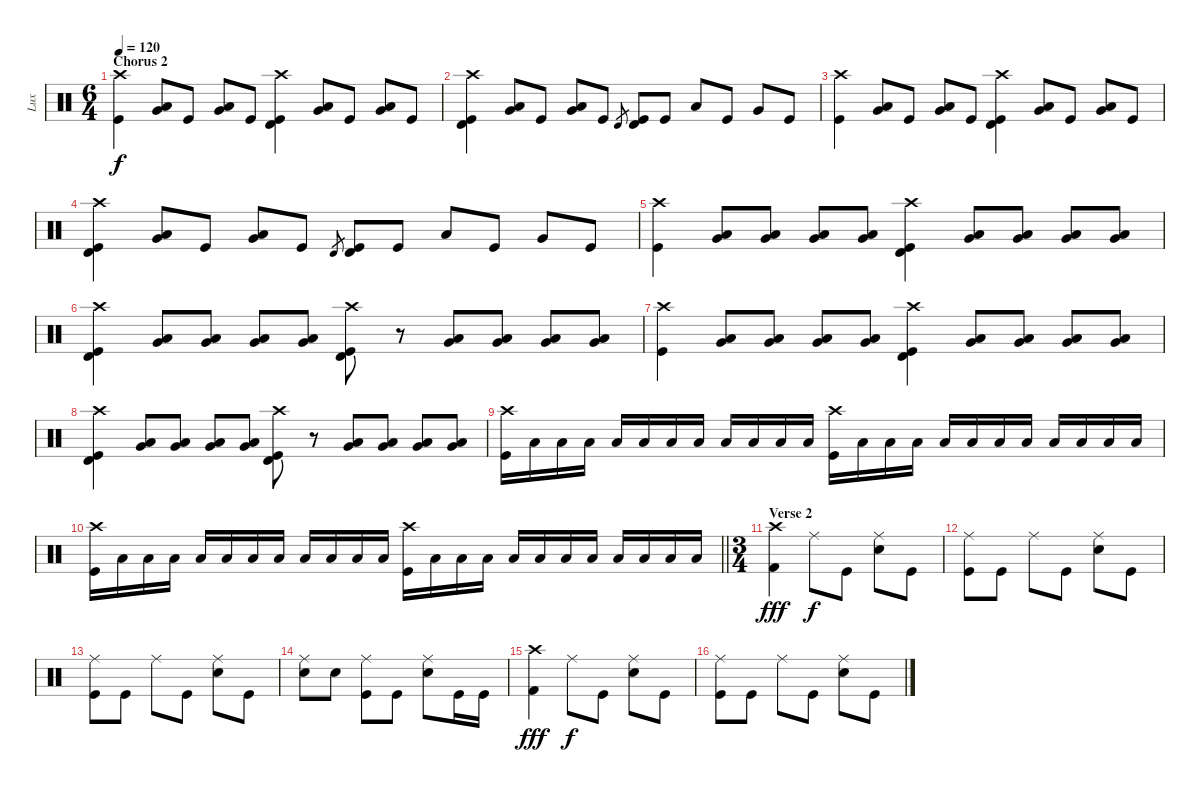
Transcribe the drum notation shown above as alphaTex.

\track ("Lux" "Lux") {instrument percussion}
\staff {score}
\articulation defaults
\ts (6 4)
\section ("" "Chorus 2")
\tempo 120
\clef neutral
\ks c
("Crash high (hit)" "Kick (hit)").4{dy f} ("Very Low Tom (hit)" "Low Floor Tom (hit)").8 "Kick (hit)".8 ("Very Low Tom (hit)" "Low Floor Tom (hit)").8 "Kick (hit)".8 ("Crash high (hit)" "Timbale high (hit)" "Kick (hit)").4 ("Very Low Tom (hit)" "Low Floor Tom (hit)").8 "Kick (hit)".8 ("Very Low Tom (hit)" "Low Floor Tom (hit)").8 "Kick (hit)".8 |
("Crash high (hit)" "Timbale high (hit)" "Kick (hit)").4 ("Very Low Tom (hit)" "Low Floor Tom (hit)").8 "Kick (hit)".8 ("Very Low Tom (hit)" "Low Floor Tom (hit)").8 "Kick (hit)".8 "Timbale high (hit)".8{gr} ("Timbale high (hit)" "Kick (hit)").8 "Kick (hit)".8 "Low Tom (hit)".8 "Kick (hit)".8 "Very Low Tom (hit)".8 "Kick (hit)".8 |
("Crash high (hit)" "Kick (hit)").4 ("Very Low Tom (hit)" "Low Floor Tom (hit)").8 "Kick (hit)".8 ("Very Low Tom (hit)" "Low Floor Tom (hit)").8 "Kick (hit)".8 ("Crash high (hit)" "Timbale high (hit)" "Kick (hit)").4 ("Very Low Tom (hit)" "Low Floor Tom (hit)").8 "Kick (hit)".8 ("Very Low Tom (hit)" "Low Floor Tom (hit)").8 "Kick (hit)".8 |
("Crash high (hit)" "Timbale high (hit)" "Kick (hit)").4 ("Very Low Tom (hit)" "Low Floor Tom (hit)").8 "Kick (hit)".8 ("Very Low Tom (hit)" "Low Floor Tom (hit)").8 "Kick (hit)".8 "Timbale high (hit)".8{gr} ("Timbale high (hit)" "Kick (hit)").8 "Kick (hit)".8 "Low Tom (hit)".8 "Kick (hit)".8 "Very Low Tom (hit)".8 "Kick (hit)".8 |
("Crash high (hit)" "Kick (hit)").4 ("Very Low Tom (hit)" "Low Floor Tom (hit)").8 ("Very Low Tom (hit)" "Low Floor Tom (hit)").8 ("Very Low Tom (hit)" "Low Floor Tom (hit)").8 ("Very Low Tom (hit)" "Low Floor Tom (hit)").8 ("Crash high (hit)" "Timbale high (hit)" "Kick (hit)").4 ("Very Low Tom (hit)" "Low Floor Tom (hit)").8 ("Very Low Tom (hit)" "Low Floor Tom (hit)").8 ("Very Low Tom (hit)" "Low Floor Tom (hit)").8 ("Very Low Tom (hit)" "Low Floor Tom (hit)").8 |
("Crash high (hit)" "Timbale high (hit)" "Kick (hit)").4 ("Very Low Tom (hit)" "Low Floor Tom (hit)").8 ("Very Low Tom (hit)" "Low Floor Tom (hit)").8 ("Very Low Tom (hit)" "Low Floor Tom (hit)").8 ("Very Low Tom (hit)" "Low Floor Tom (hit)").8 ("Crash high (hit)" "Timbale high (hit)" "Kick (hit)").8 r.8 ("Very Low Tom (hit)" "Low Floor Tom (hit)").8 ("Very Low Tom (hit)" "Low Floor Tom (hit)").8 ("Very Low Tom (hit)" "Low Floor Tom (hit)").8 ("Very Low Tom (hit)" "Low Floor Tom (hit)").8 |
("Crash high (hit)" "Kick (hit)").4 ("Very Low Tom (hit)" "Low Floor Tom (hit)").8 ("Very Low Tom (hit)" "Low Floor Tom (hit)").8 ("Very Low Tom (hit)" "Low Floor Tom (hit)").8 ("Very Low Tom (hit)" "Low Floor Tom (hit)").8 ("Crash high (hit)" "Timbale high (hit)" "Kick (hit)").4 ("Very Low Tom (hit)" "Low Floor Tom (hit)").8 ("Very Low Tom (hit)" "Low Floor Tom (hit)").8 ("Very Low Tom (hit)" "Low Floor Tom (hit)").8 ("Very Low Tom (hit)" "Low Floor Tom (hit)").8 |
("Crash high (hit)" "Timbale high (hit)" "Kick (hit)").4 ("Very Low Tom (hit)" "Low Floor Tom (hit)").8 ("Very Low Tom (hit)" "Low Floor Tom (hit)").8 ("Very Low Tom (hit)" "Low Floor Tom (hit)").8 ("Very Low Tom (hit)" "Low Floor Tom (hit)").8 ("Crash high (hit)" "Timbale high (hit)" "Kick (hit)").8 r.8 ("Very Low Tom (hit)" "Low Floor Tom (hit)").8 ("Very Low Tom (hit)" "Low Floor Tom (hit)").8 ("Very Low Tom (hit)" "Low Floor Tom (hit)").8 ("Very Low Tom (hit)" "Low Floor Tom (hit)").8 |
("Crash high (hit)" "Kick (hit)").16 "Low Floor Tom (hit)".16 "Low Floor Tom (hit)".16 "Low Floor Tom (hit)".16 "Low Floor Tom (hit)".16 "Low Floor Tom (hit)".16 "Low Floor Tom (hit)".16 "Low Floor Tom (hit)".16 "Low Floor Tom (hit)".16 "Low Floor Tom (hit)".16 "Low Floor Tom (hit)".16 "Low Floor Tom (hit)".16 ("Crash high (hit)" "Kick (hit)").16 "Low Floor Tom (hit)".16 "Low Floor Tom (hit)".16 "Low Floor Tom (hit)".16 "Low Floor Tom (hit)".16 "Low Floor Tom (hit)".16 "Low Floor Tom (hit)".16 "Low Floor Tom (hit)".16 "Low Floor Tom (hit)".16 "Low Floor Tom (hit)".16 "Low Floor Tom (hit)".16 "Low Floor Tom (hit)".16 |
\barLineRight lightlight
("Crash high (hit)" "Kick (hit)").16 "Low Floor Tom (hit)".16 "Low Floor Tom (hit)".16 "Low Floor Tom (hit)".16 "Low Floor Tom (hit)".16 "Low Floor Tom (hit)".16 "Low Floor Tom (hit)".16 "Low Floor Tom (hit)".16 "Low Floor Tom (hit)".16 "Low Floor Tom (hit)".16 "Low Floor Tom (hit)".16 "Low Floor Tom (hit)".16 ("Crash high (hit)" "Kick (hit)").16 "Low Floor Tom (hit)".16 "Low Floor Tom (hit)".16 "Low Floor Tom (hit)".16 "Low Floor Tom (hit)".16 "Low Floor Tom (hit)".16 "Low Floor Tom (hit)".16 "Low Floor Tom (hit)".16 "Low Floor Tom (hit)".16 "Low Floor Tom (hit)".16 "Low Floor Tom (hit)".16 "Low Floor Tom (hit)".16 |
\ts (3 4)
\section ("" "Verse 2")
("Crash high (hit)" "Kick (hit) 2").4{dy fff} "Ride (middle)".8{dy f} "Kick (hit)".8 ("Ride (middle)" "Snare (hit) 2").8 "Kick (hit)".8 |
("Ride (middle)" "Kick (hit)").8 "Kick (hit)".8 "Ride (middle)".8 "Kick (hit)".8 ("Ride (middle)" "Snare (hit) 2").8 "Kick (hit)".8 |
("Ride (middle)" "Kick (hit)").8 "Kick (hit)".8 "Ride (middle)".8 "Kick (hit)".8 ("Ride (middle)" "Snare (hit) 2").8 "Kick (hit)".8 |
("Ride (middle)" "Snare (hit) 2").8 "Snare (hit) 2".8 ("Ride (middle)" "Kick (hit)").8 "Kick (hit)".8 ("Ride (middle)" "Snare (hit) 2").8 "Kick (hit)".16 "Kick (hit)".16 |
("Crash high (hit)" "Kick (hit) 2").4{dy fff} "Ride (middle)".8{dy f} "Kick (hit)".8 ("Ride (middle)" "Snare (hit) 2").8 "Kick (hit)".8 |
("Ride (middle)" "Kick (hit)").8 "Kick (hit)".8 "Ride (middle)".8 "Kick (hit)".8 ("Ride (middle)" "Snare (hit) 2").8 "Kick (hit)".8
